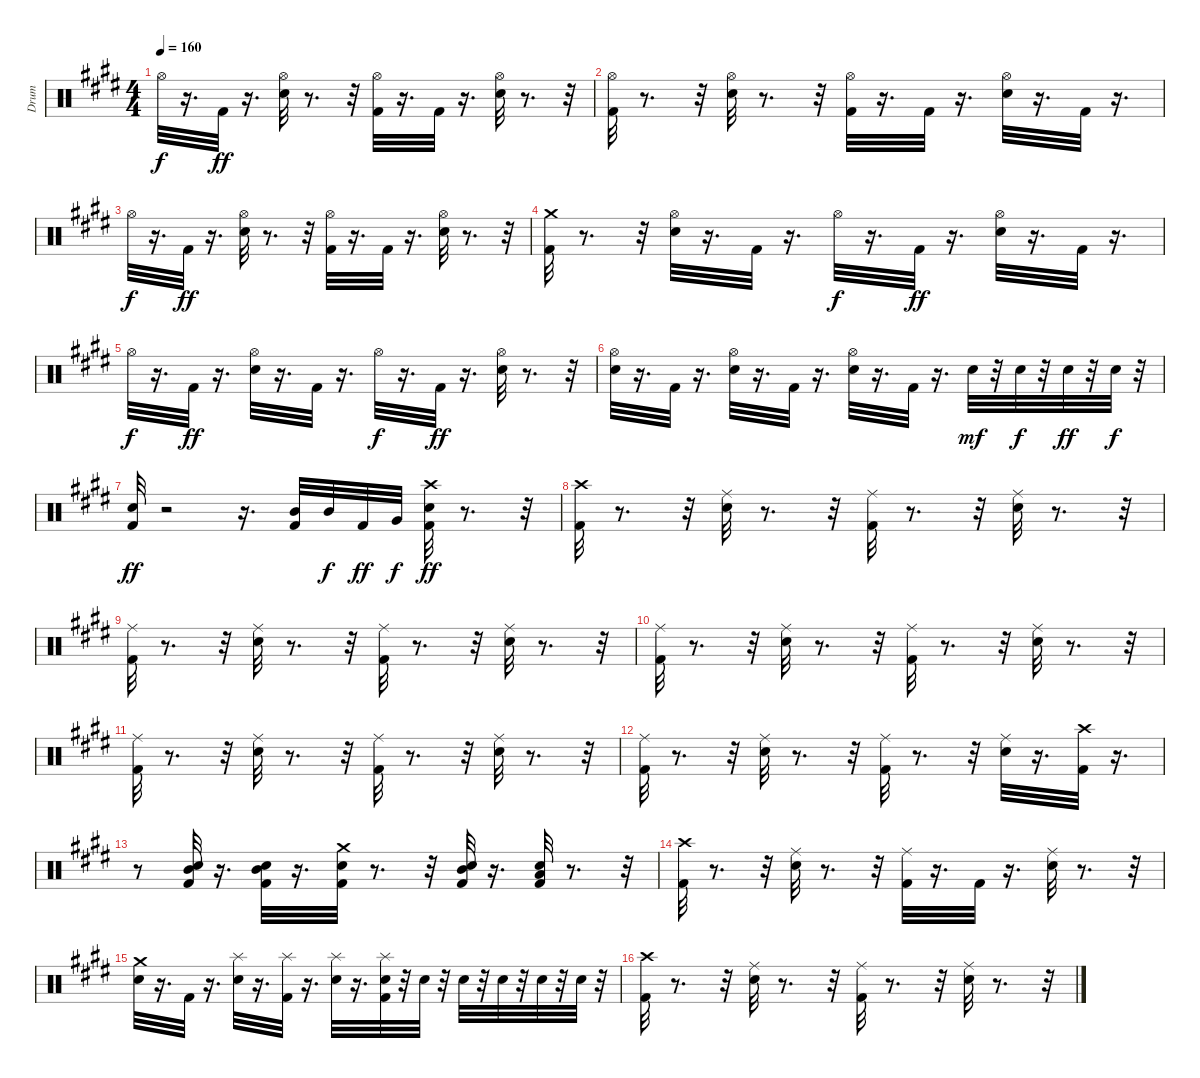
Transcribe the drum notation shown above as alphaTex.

\track ("Drum" "Drum") {instrument percussion}
\staff {score}
\articulation defaults
\ts (4 4)
\tempo 160
\clef neutral
\ks e "Hi-Hat (open)".32{dy f}
r.16{d} "Kick (hit) 2".32{dy ff} r.16{d} ("Electric Snare (hit)" "Hi-Hat (open)").32 r.8{d} r.32 ("Kick (hit) 2" "Hi-Hat (open)").32 r.16{d} "Kick (hit) 2".32 r.16{d} ("Electric Snare (hit)" "Hi-Hat (open)").32 r.8{d} r.32 |
("Kick (hit) 2" "Hi-Hat (open)").32 r.8{d} r.32 ("Electric Snare (hit)" "Hi-Hat (open)").32 r.8{d} r.32 ("Kick (hit) 2" "Hi-Hat (open)").32 r.16{d} "Kick (hit) 2".32 r.16{d} ("Electric Snare (hit)" "Hi-Hat (open)").32 r.16{d} "Kick (hit) 2".32 r.16{d} |
"Hi-Hat (open)".32{dy f} r.16{d} "Kick (hit) 2".32{dy ff} r.16{d} ("Electric Snare (hit)" "Hi-Hat (open)").32 r.8{d} r.32 ("Kick (hit) 2" "Hi-Hat (open)").32 r.16{d} "Kick (hit) 2".32 r.16{d} ("Electric Snare (hit)" "Hi-Hat (open)").32 r.8{d} r.32 |
("Crash medium (hit)" "Kick (hit) 2").32 r.8{d} r.32 ("Electric Snare (hit)" "Hi-Hat (open)").32 r.16{d} "Kick (hit) 2".32 r.16{d} "Hi-Hat (open)".32{dy f} r.16{d} "Kick (hit) 2".32{dy ff} r.16{d} ("Electric Snare (hit)" "Hi-Hat (open)").32 r.16{d} "Kick (hit) 2".32 r.16{d} |
"Hi-Hat (open)".32{dy f} r.16{d} "Kick (hit) 2".32{dy ff} r.16{d} ("Electric Snare (hit)" "Hi-Hat (open)").32 r.16{d} "Kick (hit) 2".32 r.16{d} "Hi-Hat (open)".32{dy f} r.16{d} "Kick (hit) 2".32{dy ff} r.16{d} ("Electric Snare (hit)" "Hi-Hat (open)").32 r.8{d} r.32 |
("Hi-Hat (open)" "Electric Snare (hit)").32 r.16{d} "Kick (hit) 2".32 r.16{d} ("Electric Snare (hit)" "Hi-Hat (open)").32 r.16{d} "Kick (hit) 2".32 r.16{d} ("Electric Snare (hit)" "Hi-Hat (open)").32 r.16{d} "Kick (hit) 2".32 r.16{d} "Electric Snare (hit)".32{dy mf} r.32 "Electric Snare (hit)".32{dy f} r.32 "Electric Snare (hit)".32{dy ff} r.32 "Electric Snare (hit)".32{dy f} r.32 |
("Kick (hit) 2" "Electric Snare (hit)").32{dy ff} r.2 r.16{d} ("Mid Tom (hit)" "Kick (hit) 2").32 "Mid Tom (hit)".32{dy f} "Kick (hit) 2".32{dy ff} "Very Low Tom (hit)".32{dy f} ("Crash high (hit)" "Kick (hit) 2" "Electric Snare (hit)").32{dy ff} r.8{d} r.32 |
("Crash high (hit)" "Kick (hit) 2").32 r.8{d} r.32 ("Electric Snare (hit)" "Ride (middle)").32 r.8{d} r.32 ("Kick (hit) 2" "Ride (middle)").32 r.8{d} r.32 ("Electric Snare (hit)" "Ride (middle)").32 r.8{d} r.32 |
("Kick (hit) 2" "Ride (middle)").32 r.8{d} r.32 ("Electric Snare (hit)" "Ride (middle)").32 r.8{d} r.32 ("Kick (hit) 2" "Ride (middle)").32 r.8{d} r.32 ("Electric Snare (hit)" "Ride (middle)").32 r.8{d} r.32 |
("Kick (hit) 2" "Ride (middle)").32 r.8{d} r.32 ("Electric Snare (hit)" "Ride (middle)").32 r.8{d} r.32 ("Kick (hit) 2" "Ride (middle)").32 r.8{d} r.32 ("Electric Snare (hit)" "Ride (middle)").32 r.8{d} r.32 |
("Kick (hit) 2" "Ride (middle)").32 r.8{d} r.32 ("Electric Snare (hit)" "Ride (middle)").32 r.8{d} r.32 ("Kick (hit) 2" "Ride (middle)").32 r.8{d} r.32 ("Electric Snare (hit)" "Ride (middle)").32 r.8{d} r.32 |
("Kick (hit) 2" "Ride (middle)").32 r.8{d} r.32 ("Electric Snare (hit)" "Ride (middle)").32 r.8{d} r.32 ("Kick (hit) 2" "Ride (middle)").32 r.8{d} r.32 ("Electric Snare (hit)" "Ride (middle)").32 r.16{d} ("Crash high (hit)" "Kick (hit) 2").32 r.16{d} |
r.8 ("Mid Tom (hit)" "Kick (hit) 2" "Electric Snare (hit)").32 r.16{d} ("Mid Tom (hit)" "Kick (hit) 2" "Electric Snare (hit)").32 r.16{d} ("Crash medium (hit)" "Kick (hit) 2" "Electric Snare (hit)").32 r.8{d} r.32 ("Mid Tom (hit)" "Kick (hit) 2" "Electric Snare (hit)").32 r.16{d} ("Kick (hit) 2" "Low Tom (hit)" "Electric Snare (hit)").32 r.8{d} r.32 |
("Crash high (hit)" "Kick (hit) 2").32 r.8{d} r.32 ("Electric Snare (hit)" "Ride (middle)").32 r.8{d} r.32 ("Kick (hit) 2" "Ride (middle)").32 r.16{d} "Kick (hit) 2".32 r.16{d} ("Electric Snare (hit)" "Ride (middle)").32 r.8{d} r.32 |
("Crash medium (hit)" "Electric Snare (hit)").32 r.16{d} "Kick (hit) 2".32 r.16{d} ("Splash (hit)" "Electric Snare (hit)").32 r.16{d} ("Splash (hit)" "Kick (hit) 2").32 r.16{d} ("Splash (hit)" "Electric Snare (hit)").32 r.16{d} ("Splash (hit)" "Kick (hit) 2" "Electric Snare (hit)").32 r.32 "Electric Snare (hit)".32 r.32 "Electric Snare (hit)".32 r.32 "Electric Snare (hit)".32 r.32 "Electric Snare (hit)".32 r.32 "Electric Snare (hit)".32 r.32 |
("Crash high (hit)" "Kick (hit) 2").32 r.8{d} r.32 ("Electric Snare (hit)" "Ride (middle)").32 r.8{d} r.32 ("Kick (hit) 2" "Ride (middle)").32 r.8{d} r.32 ("Electric Snare (hit)" "Ride (middle)").32 r.8{d} r.32
